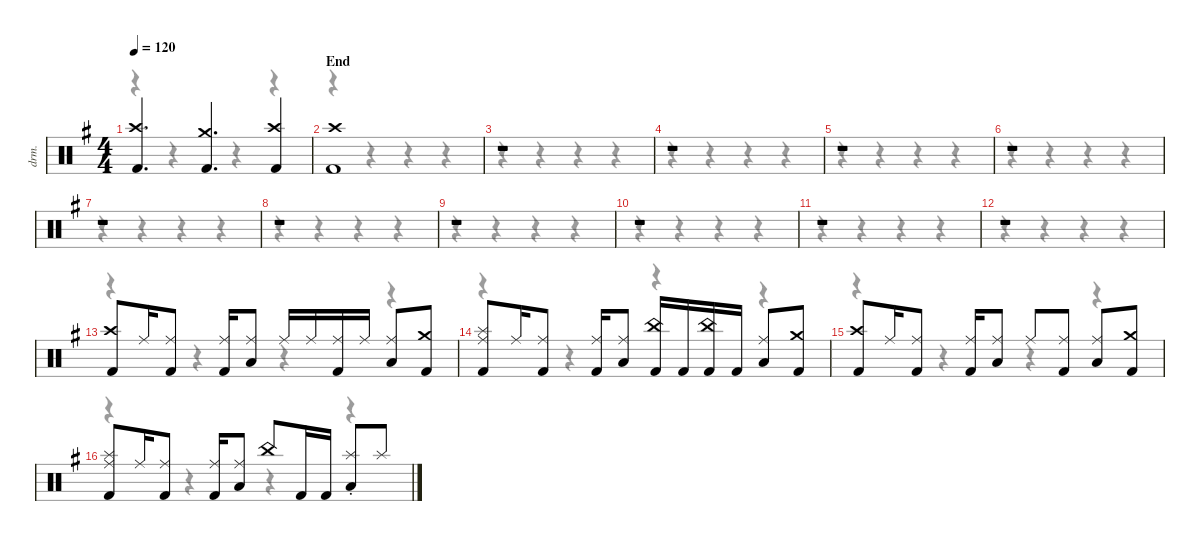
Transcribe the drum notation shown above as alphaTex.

\defaultSystemsLayout 4
\hideDynamics
\bracketExtendMode nobrackets
\track ("Drums" "drm.") {instrument percussion}
\staff {score}
\articulation defaults
\voice
\ts (4 4)
\tempo 120
\clef neutral
\ks g
("Crash high (hit)"{acc forcenatural} "Kick (hit) 2"{acc forcenatural}).4{d dy mf} ("Crash medium (hit)"{acc forcenatural} "Kick (hit) 2"{acc forcenatural}).4{d dy f} ("Crash high (hit)"{acc forcenatural} "Kick (hit) 2"{acc forcenatural}).4{dy mf} |
\section ("" "End")
("Crash high (hit)"{acc forcenatural} "Kick (hit) 2"{acc forcenatural}).1 |
r.1 |
r.1 |
r.1 |
r.1 |
r.1 |
r.1 |
r.1 |
r.1 |
r.1 |
r.1 |
("Kick (hit) 2"{acc forcenatural} "Crash high (hit)"{acc forcenatural}).8 "Ride (middle)"{acc forcenatural}.16 ("Kick (hit) 2"{acc forcenatural} "Ride (middle)"{acc forcenatural}).8 ("Kick (hit) 2"{acc forcenatural} "Ride (middle)"{acc forcenatural}).16 ("Low Floor Tom (hit)"{acc forcenatural} "Ride (middle)"{acc forcenatural}).8 "Ride (middle)"{acc forcenatural}.16 "Ride (middle)"{acc forcenatural}.16 ("Kick (hit) 2"{acc forcenatural} "Ride (middle)"{acc forcenatural}).16 "Ride (middle)"{acc forcenatural}.16 ("Low Floor Tom (hit)"{acc forcenatural} "Ride (middle)"{acc forcenatural}).8 ("Kick (hit) 2"{acc forcenatural} "Crash medium (hit)"{acc forcenatural}).8 |
("Kick (hit) 2"{acc forcenatural} "Ride (middle)"{acc forcenatural} "Splash (hit)"{acc forcenatural}).8 "Ride (middle)"{acc forcenatural}.16 ("Kick (hit) 2"{acc forcenatural} "Ride (middle)"{acc forcenatural}).8 ("Kick (hit) 2"{acc forcenatural} "Ride (middle)"{acc forcenatural}).16 ("Low Floor Tom (hit)"{acc forcenatural} "Ride (middle)"{acc forcenatural}).8 ("Kick (hit) 2"{acc forcenatural} "China (choke)"{acc forcenatural}).16 "Kick (hit) 2"{acc forcenatural}.16 ("Kick (hit) 2"{acc forcenatural} "China (choke)"{acc forcenatural}).16 "Kick (hit) 2"{acc forcenatural}.16 ("Low Floor Tom (hit)"{acc forcenatural} "Ride (middle)"{acc forcenatural}).8 ("Kick (hit) 2"{acc forcenatural} "Crash medium (hit)"{acc forcenatural}).8 |
("Kick (hit) 2"{acc forcenatural} "Crash high (hit)"{acc forcenatural}).8 "Ride (middle)"{acc forcenatural}.16 ("Kick (hit) 2"{acc forcenatural} "Ride (middle)"{acc forcenatural}).8 ("Kick (hit) 2"{acc forcenatural} "Ride (middle)"{acc forcenatural}).16 ("Low Floor Tom (hit)"{acc forcenatural} "Ride (middle)"{acc forcenatural}).8 "Ride (middle)"{acc forcenatural}.8 ("Kick (hit) 2"{acc forcenatural} "Ride (middle)"{acc forcenatural}).8 ("Low Floor Tom (hit)"{acc forcenatural} "Ride (middle)"{acc forcenatural}).8 ("Kick (hit) 2"{acc forcenatural} "Crash medium (hit)"{acc forcenatural}).8 |
("Kick (hit) 2"{acc forcenatural} "Splash (hit)"{acc forcenatural} "Ride (middle)"{acc forcenatural}).8 "Ride (middle)"{acc forcenatural}.16 ("Kick (hit) 2"{acc forcenatural} "Ride (middle)"{acc forcenatural}).8 ("Kick (hit) 2"{acc forcenatural} "Ride (middle)"{acc forcenatural}).16 ("Low Floor Tom (hit)"{acc forcenatural} "Ride (middle)"{acc forcenatural}).8 "China (choke)"{acc forcenatural}.8 "Kick (hit) 2"{acc forcenatural}.16 "Kick (hit) 2"{acc forcenatural}.16 ("Low Floor Tom (hit)"{acc forcenatural} "Splash (choke)"{acc forcenatural}).8 "Splash (hit)"{acc forcenatural}.8
\voice
\clef neutral
\ottava regular
\simile none
\ks g
r.4{dy mf} r.4 r.4 r.4 |
r.4 r.4 r.4 r.4 |
r.4 r.4 r.4 r.4 |
r.4 r.4 r.4 r.4 |
r.4 r.4 r.4 r.4 |
r.4 r.4 r.4 r.4 |
r.4 r.4 r.4 r.4 |
r.4 r.4 r.4 r.4 |
r.4 r.4 r.4 r.4 |
r.4 r.4 r.4 r.4 |
r.4 r.4 r.4 r.4 |
r.4 r.4 r.4 r.4 |
r.4 r.4 r.4 r.4 |
r.4 r.4 r.4 r.4 |
r.4 r.4 r.4 r.4 |
r.4 r.4 r.4 r.4
